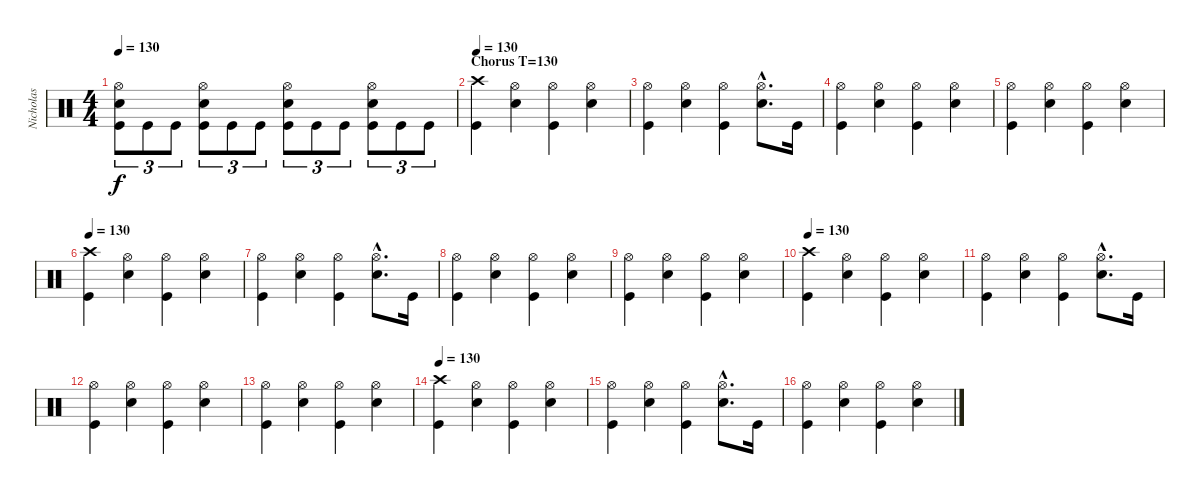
\track ("Nicholas" "Nicholas") {instrument percussion}
\staff {score}
\articulation defaults
\ts (4 4)
\tempo 130
\clef neutral
\ks c
("Hi-Hat (open)" "Electric Snare (hit)" "Kick (hit)").8{tu (3 2) dy f} "Kick (hit)".8{tu (3 2)} "Kick (hit)".8{tu (3 2)} ("Hi-Hat (open)" "Electric Snare (hit)" "Kick (hit)").8{tu (3 2)} "Kick (hit)".8{tu (3 2)} "Kick (hit)".8{tu (3 2)} ("Hi-Hat (open)" "Electric Snare (hit)" "Kick (hit)").8{tu (3 2)} "Kick (hit)".8{tu (3 2)} "Kick (hit)".8{tu (3 2)} ("Hi-Hat (open)" "Electric Snare (hit)" "Kick (hit)").8{tu (3 2)} "Kick (hit)".8{tu (3 2)} "Kick (hit)".8{tu (3 2)} |
\section ("" "Chorus T=130")
\tempo 130
("Crash high (hit)" "Kick (hit)").4 ("Hi-Hat (open)" "Electric Snare (hit)").4 ("Hi-Hat (open)" "Kick (hit)").4 ("Hi-Hat (open)" "Electric Snare (hit)").4 |
("Hi-Hat (open)" "Kick (hit)").4 ("Hi-Hat (open)" "Electric Snare (hit)").4 ("Hi-Hat (open)" "Kick (hit)").4 ("Hi-Hat (open)"{hac} "Electric Snare (hit)"{hac}).8{d} "Kick (hit)".16 |
("Hi-Hat (open)" "Kick (hit)").4 ("Hi-Hat (open)" "Electric Snare (hit)").4 ("Hi-Hat (open)" "Kick (hit)").4 ("Hi-Hat (open)" "Electric Snare (hit)").4 |
("Hi-Hat (open)" "Kick (hit)").4 ("Hi-Hat (open)" "Electric Snare (hit)").4 ("Hi-Hat (open)" "Kick (hit)").4 ("Hi-Hat (open)" "Electric Snare (hit)").4 |
\tempo 130
("Crash high (hit)" "Kick (hit)").4 ("Hi-Hat (open)" "Electric Snare (hit)").4 ("Hi-Hat (open)" "Kick (hit)").4 ("Hi-Hat (open)" "Electric Snare (hit)").4 |
("Hi-Hat (open)" "Kick (hit)").4 ("Hi-Hat (open)" "Electric Snare (hit)").4 ("Hi-Hat (open)" "Kick (hit)").4 ("Hi-Hat (open)"{hac} "Electric Snare (hit)"{hac}).8{d} "Kick (hit)".16 |
("Hi-Hat (open)" "Kick (hit)").4 ("Hi-Hat (open)" "Electric Snare (hit)").4 ("Hi-Hat (open)" "Kick (hit)").4 ("Hi-Hat (open)" "Electric Snare (hit)").4 |
("Hi-Hat (open)" "Kick (hit)").4 ("Hi-Hat (open)" "Electric Snare (hit)").4 ("Hi-Hat (open)" "Kick (hit)").4 ("Hi-Hat (open)" "Electric Snare (hit)").4 |
\tempo 130
("Crash high (hit)" "Kick (hit)").4 ("Hi-Hat (open)" "Electric Snare (hit)").4 ("Hi-Hat (open)" "Kick (hit)").4 ("Hi-Hat (open)" "Electric Snare (hit)").4 |
("Hi-Hat (open)" "Kick (hit)").4 ("Hi-Hat (open)" "Electric Snare (hit)").4 ("Hi-Hat (open)" "Kick (hit)").4 ("Hi-Hat (open)"{hac} "Electric Snare (hit)"{hac}).8{d} "Kick (hit)".16 |
("Hi-Hat (open)" "Kick (hit)").4 ("Hi-Hat (open)" "Electric Snare (hit)").4 ("Hi-Hat (open)" "Kick (hit)").4 ("Hi-Hat (open)" "Electric Snare (hit)").4 |
("Hi-Hat (open)" "Kick (hit)").4 ("Hi-Hat (open)" "Electric Snare (hit)").4 ("Hi-Hat (open)" "Kick (hit)").4 ("Hi-Hat (open)" "Electric Snare (hit)").4 |
\tempo 130
("Crash high (hit)" "Kick (hit)").4 ("Hi-Hat (open)" "Electric Snare (hit)").4 ("Hi-Hat (open)" "Kick (hit)").4 ("Hi-Hat (open)" "Electric Snare (hit)").4 |
("Hi-Hat (open)" "Kick (hit)").4 ("Hi-Hat (open)" "Electric Snare (hit)").4 ("Hi-Hat (open)" "Kick (hit)").4 ("Hi-Hat (open)"{hac} "Electric Snare (hit)"{hac}).8{d} "Kick (hit)".16 |
("Hi-Hat (open)" "Kick (hit)").4 ("Hi-Hat (open)" "Electric Snare (hit)").4 ("Hi-Hat (open)" "Kick (hit)").4 ("Hi-Hat (open)" "Electric Snare (hit)").4
